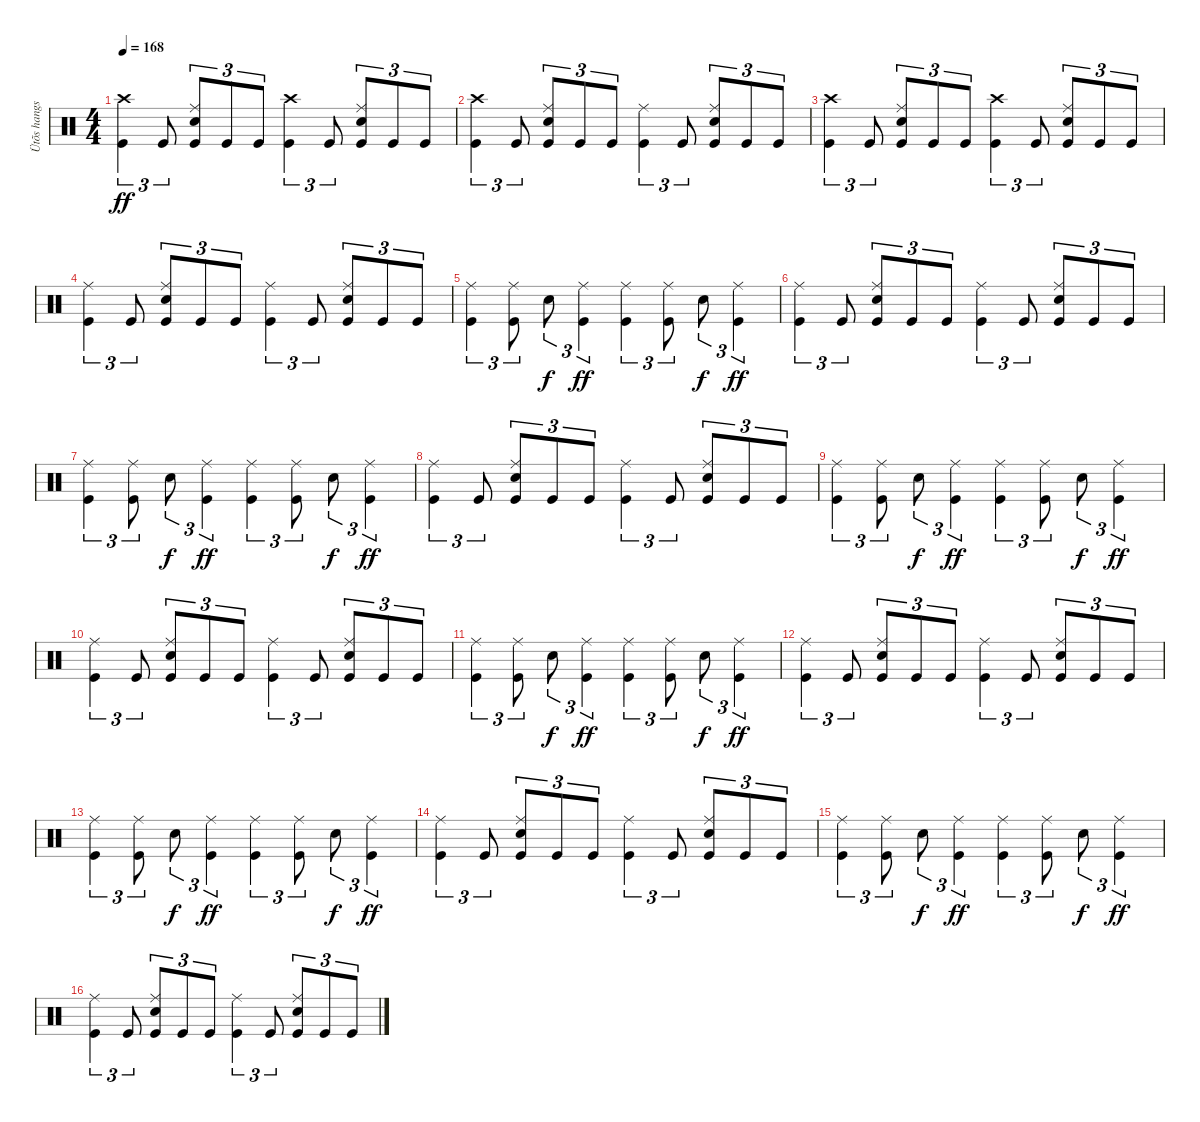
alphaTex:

\track ("Ütõs hangszer" "Ütõs hangs") {instrument percussion}
\staff {score}
\articulation defaults
\ts (4 4)
\tempo 168
\clef neutral
\ks c
("Crash high (hit)" "Kick (hit)").4{tu (3 2) dy ff} "Kick (hit)".8{tu (3 2)} ("Ride (middle)" "Electric Snare (hit)" "Kick (hit)").8{tu (3 2)} "Kick (hit)".8{tu (3 2)} "Kick (hit)".8{tu (3 2)} ("Crash high (hit)" "Kick (hit)").4{tu (3 2)} "Kick (hit)".8{tu (3 2)} ("Ride (middle)" "Electric Snare (hit)" "Kick (hit)").8{tu (3 2)} "Kick (hit)".8{tu (3 2)} "Kick (hit)".8{tu (3 2)} |
("Crash high (hit)" "Kick (hit)").4{tu (3 2)} "Kick (hit)".8{tu (3 2)} ("Ride (middle)" "Electric Snare (hit)" "Kick (hit)").8{tu (3 2)} "Kick (hit)".8{tu (3 2)} "Kick (hit)".8{tu (3 2)} ("Ride (middle)" "Kick (hit)").4{tu (3 2)} "Kick (hit)".8{tu (3 2)} ("Ride (middle)" "Electric Snare (hit)" "Kick (hit)").8{tu (3 2)} "Kick (hit)".8{tu (3 2)} "Kick (hit)".8{tu (3 2)} |
("Crash high (hit)" "Kick (hit)").4{tu (3 2)} "Kick (hit)".8{tu (3 2)} ("Ride (middle)" "Electric Snare (hit)" "Kick (hit)").8{tu (3 2)} "Kick (hit)".8{tu (3 2)} "Kick (hit)".8{tu (3 2)} ("Crash high (hit)" "Kick (hit)").4{tu (3 2)} "Kick (hit)".8{tu (3 2)} ("Ride (middle)" "Electric Snare (hit)" "Kick (hit)").8{tu (3 2)} "Kick (hit)".8{tu (3 2)} "Kick (hit)".8{tu (3 2)} |
("Ride (middle)" "Kick (hit)").4{tu (3 2)} "Kick (hit)".8{tu (3 2)} ("Ride (middle)" "Electric Snare (hit)" "Kick (hit)").8{tu (3 2)} "Kick (hit)".8{tu (3 2)} "Kick (hit)".8{tu (3 2)} ("Ride (middle)" "Kick (hit)").4{tu (3 2)} "Kick (hit)".8{tu (3 2)} ("Ride (middle)" "Electric Snare (hit)" "Kick (hit)").8{tu (3 2)} "Kick (hit)".8{tu (3 2)} "Kick (hit)".8{tu (3 2)} |
("Ride (middle)" "Kick (hit)").4{tu (3 2)} ("Ride (middle)" "Kick (hit)").8{tu (3 2)} "Electric Snare (hit)".8{tu (3 2) dy f} ("Ride (middle)" "Kick (hit)").4{tu (3 2) dy ff} ("Ride (middle)" "Kick (hit)").4{tu (3 2)} ("Ride (middle)" "Kick (hit)").8{tu (3 2)} "Electric Snare (hit)".8{tu (3 2) dy f} ("Ride (middle)" "Kick (hit)").4{tu (3 2) dy ff} |
("Ride (middle)" "Kick (hit)").4{tu (3 2)} "Kick (hit)".8{tu (3 2)} ("Ride (middle)" "Electric Snare (hit)" "Kick (hit)").8{tu (3 2)} "Kick (hit)".8{tu (3 2)} "Kick (hit)".8{tu (3 2)} ("Ride (middle)" "Kick (hit)").4{tu (3 2)} "Kick (hit)".8{tu (3 2)} ("Ride (middle)" "Electric Snare (hit)" "Kick (hit)").8{tu (3 2)} "Kick (hit)".8{tu (3 2)} "Kick (hit)".8{tu (3 2)} |
("Ride (middle)" "Kick (hit)").4{tu (3 2)} ("Ride (middle)" "Kick (hit)").8{tu (3 2)} "Electric Snare (hit)".8{tu (3 2) dy f} ("Ride (middle)" "Kick (hit)").4{tu (3 2) dy ff} ("Ride (middle)" "Kick (hit)").4{tu (3 2)} ("Ride (middle)" "Kick (hit)").8{tu (3 2)} "Electric Snare (hit)".8{tu (3 2) dy f} ("Ride (middle)" "Kick (hit)").4{tu (3 2) dy ff} |
("Ride (middle)" "Kick (hit)").4{tu (3 2)} "Kick (hit)".8{tu (3 2)} ("Ride (middle)" "Electric Snare (hit)" "Kick (hit)").8{tu (3 2)} "Kick (hit)".8{tu (3 2)} "Kick (hit)".8{tu (3 2)} ("Ride (middle)" "Kick (hit)").4{tu (3 2)} "Kick (hit)".8{tu (3 2)} ("Ride (middle)" "Electric Snare (hit)" "Kick (hit)").8{tu (3 2)} "Kick (hit)".8{tu (3 2)} "Kick (hit)".8{tu (3 2)} |
("Ride (middle)" "Kick (hit)").4{tu (3 2)} ("Ride (middle)" "Kick (hit)").8{tu (3 2)} "Electric Snare (hit)".8{tu (3 2) dy f} ("Ride (middle)" "Kick (hit)").4{tu (3 2) dy ff} ("Ride (middle)" "Kick (hit)").4{tu (3 2)} ("Ride (middle)" "Kick (hit)").8{tu (3 2)} "Electric Snare (hit)".8{tu (3 2) dy f} ("Ride (middle)" "Kick (hit)").4{tu (3 2) dy ff} |
("Ride (middle)" "Kick (hit)").4{tu (3 2)} "Kick (hit)".8{tu (3 2)} ("Ride (middle)" "Electric Snare (hit)" "Kick (hit)").8{tu (3 2)} "Kick (hit)".8{tu (3 2)} "Kick (hit)".8{tu (3 2)} ("Ride (middle)" "Kick (hit)").4{tu (3 2)} "Kick (hit)".8{tu (3 2)} ("Ride (middle)" "Electric Snare (hit)" "Kick (hit)").8{tu (3 2)} "Kick (hit)".8{tu (3 2)} "Kick (hit)".8{tu (3 2)} |
("Ride (middle)" "Kick (hit)").4{tu (3 2)} ("Ride (middle)" "Kick (hit)").8{tu (3 2)} "Electric Snare (hit)".8{tu (3 2) dy f} ("Ride (middle)" "Kick (hit)").4{tu (3 2) dy ff} ("Ride (middle)" "Kick (hit)").4{tu (3 2)} ("Ride (middle)" "Kick (hit)").8{tu (3 2)} "Electric Snare (hit)".8{tu (3 2) dy f} ("Ride (middle)" "Kick (hit)").4{tu (3 2) dy ff} |
("Ride (middle)" "Kick (hit)").4{tu (3 2)} "Kick (hit)".8{tu (3 2)} ("Ride (middle)" "Electric Snare (hit)" "Kick (hit)").8{tu (3 2)} "Kick (hit)".8{tu (3 2)} "Kick (hit)".8{tu (3 2)} ("Ride (middle)" "Kick (hit)").4{tu (3 2)} "Kick (hit)".8{tu (3 2)} ("Ride (middle)" "Electric Snare (hit)" "Kick (hit)").8{tu (3 2)} "Kick (hit)".8{tu (3 2)} "Kick (hit)".8{tu (3 2)} |
("Ride (middle)" "Kick (hit)").4{tu (3 2)} ("Ride (middle)" "Kick (hit)").8{tu (3 2)} "Electric Snare (hit)".8{tu (3 2) dy f} ("Ride (middle)" "Kick (hit)").4{tu (3 2) dy ff} ("Ride (middle)" "Kick (hit)").4{tu (3 2)} ("Ride (middle)" "Kick (hit)").8{tu (3 2)} "Electric Snare (hit)".8{tu (3 2) dy f} ("Ride (middle)" "Kick (hit)").4{tu (3 2) dy ff} |
("Ride (middle)" "Kick (hit)").4{tu (3 2)} "Kick (hit)".8{tu (3 2)} ("Ride (middle)" "Electric Snare (hit)" "Kick (hit)").8{tu (3 2)} "Kick (hit)".8{tu (3 2)} "Kick (hit)".8{tu (3 2)} ("Ride (middle)" "Kick (hit)").4{tu (3 2)} "Kick (hit)".8{tu (3 2)} ("Ride (middle)" "Electric Snare (hit)" "Kick (hit)").8{tu (3 2)} "Kick (hit)".8{tu (3 2)} "Kick (hit)".8{tu (3 2)} |
("Ride (middle)" "Kick (hit)").4{tu (3 2)} ("Ride (middle)" "Kick (hit)").8{tu (3 2)} "Electric Snare (hit)".8{tu (3 2) dy f} ("Ride (middle)" "Kick (hit)").4{tu (3 2) dy ff} ("Ride (middle)" "Kick (hit)").4{tu (3 2)} ("Ride (middle)" "Kick (hit)").8{tu (3 2)} "Electric Snare (hit)".8{tu (3 2) dy f} ("Ride (middle)" "Kick (hit)").4{tu (3 2) dy ff} |
("Ride (middle)" "Kick (hit)").4{tu (3 2)} "Kick (hit)".8{tu (3 2)} ("Ride (middle)" "Electric Snare (hit)" "Kick (hit)").8{tu (3 2)} "Kick (hit)".8{tu (3 2)} "Kick (hit)".8{tu (3 2)} ("Ride (middle)" "Kick (hit)").4{tu (3 2)} "Kick (hit)".8{tu (3 2)} ("Ride (middle)" "Electric Snare (hit)" "Kick (hit)").8{tu (3 2)} "Kick (hit)".8{tu (3 2)} "Kick (hit)".8{tu (3 2)}
